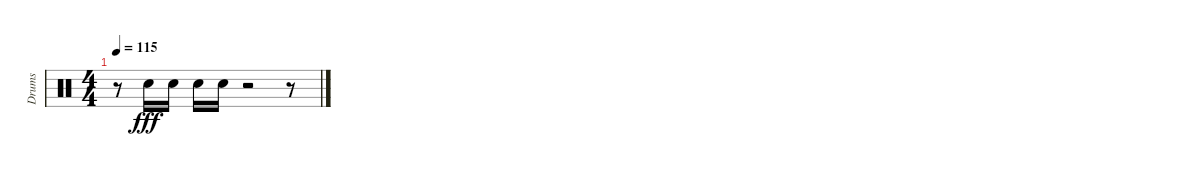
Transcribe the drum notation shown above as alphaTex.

\track ("Drums" "Drums") {instrument percussion}
\staff {score}
\articulation defaults
\ts (4 4)
\tempo 115
\clef neutral
\ks c
r.8{dy fff} "Electric Snare (hit)".16{volume 15} "Electric Snare (hit)".16{volume 15} "Electric Snare (hit)".16{volume 15} "Electric Snare (hit)".16{volume 15} r.2 r.8
